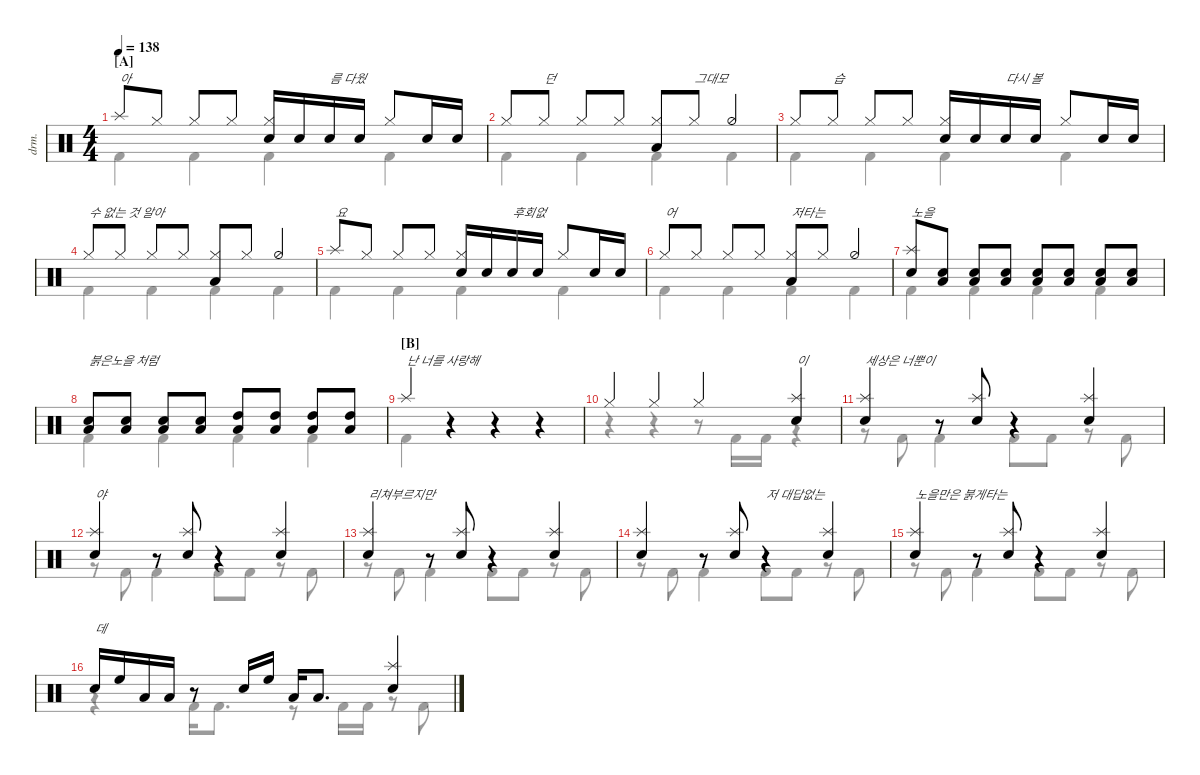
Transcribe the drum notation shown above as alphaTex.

\defaultSystemsLayout 4
\hideDynamics
\bracketExtendMode nobrackets
\track ("Drumkit" "drm.") {instrument percussion}
\staff {score}
\articulation defaults
\voice
\ts (4 4)
\section ("A" "")
\tempo 138
\clef neutral
\ks c "Splash (hit)".8{txt "아" dy mf} "Hi-Hat (closed)".8 "Hi-Hat (closed)".8 "Hi-Hat (closed)".8
("Hi-Hat (closed)" "Snare (hit) 2").16 "Snare (hit) 2".16 "Snare (hit) 2".16{txt "름 다웠"} "Snare (hit) 2".16 "Hi-Hat (closed)".8 "Snare (hit) 2".16 "Snare (hit) 2".16 |
"Hi-Hat (closed)".8 "Hi-Hat (closed)".8{txt "던"} "Hi-Hat (closed)".8 "Hi-Hat (closed)".8 ("Hi-Hat (closed)" "Low Tom (hit)").8 "Hi-Hat (closed)".8{txt "그대모"} "Hi-Hat (half)".4 |
"Hi-Hat (closed)".8 "Hi-Hat (closed)".8{txt "습"} "Hi-Hat (closed)".8 "Hi-Hat (closed)".8 ("Hi-Hat (closed)" "Snare (hit) 2").16 "Snare (hit) 2".16 "Snare (hit) 2".16{txt "다시 볼"} "Snare (hit) 2".16 "Hi-Hat (closed)".8 "Snare (hit) 2".16 "Snare (hit) 2".16 |
"Hi-Hat (closed)".8{txt "수 없는 것 알아"} "Hi-Hat (closed)".8 "Hi-Hat (closed)".8 "Hi-Hat (closed)".8 ("Hi-Hat (closed)" "Low Tom (hit)").8 "Hi-Hat (closed)".8 "Hi-Hat (half)".4 |
"Splash (hit)".8{txt "요"} "Hi-Hat (closed)".8 "Hi-Hat (closed)".8 "Hi-Hat (closed)".8 ("Hi-Hat (closed)" "Snare (hit) 2").16 "Snare (hit) 2".16 "Snare (hit) 2".16{txt "후회없"} "Snare (hit) 2".16 "Hi-Hat (closed)".8 "Snare (hit) 2".16 "Snare (hit) 2".16 |
"Hi-Hat (closed)".8{txt "어"} "Hi-Hat (closed)".8 "Hi-Hat (closed)".8 "Hi-Hat (closed)".8 ("Hi-Hat (closed)" "Low Tom (hit)").8{txt "저타는"} "Hi-Hat (closed)".8 "Hi-Hat (half)".4 |
("Splash (hit)" "Snare (hit) 2").8{txt "노을"} ("Snare (hit) 2" "Low Tom (hit)").8 ("Snare (hit) 2" "Low Tom (hit)").8 ("Snare (hit) 2" "Low Tom (hit)").8 ("Snare (hit) 2" "Low Tom (hit)").8 ("Snare (hit) 2" "Low Tom (hit)").8 ("Snare (hit) 2" "Low Tom (hit)").8 ("Snare (hit) 2" "Low Tom (hit)").8 |
("Snare (hit) 2" "Low Tom (hit)").8{txt "붉은노을 처럼"} ("Snare (hit) 2" "Low Tom (hit)").8 ("Snare (hit) 2" "Low Tom (hit)").8 ("Snare (hit) 2" "Low Tom (hit)").8 ("High Tom (hit)" "Low Tom (hit)").8 ("High Tom (hit)" "Low Tom (hit)").8 ("High Tom (hit)" "Low Tom (hit)").8 ("High Tom (hit)" "Low Tom (hit)").8 |
\section ("B" "")
"Splash (hit)".4{txt "난 너를 사랑해"} r.4 r.4 r.4 |
"Hi-Hat (closed)".4 "Hi-Hat (closed)".4 "Hi-Hat (closed)".4 ("Splash (hit)" "Snare (hit) 2").4{txt "이"} |
("Splash (hit)" "Snare (hit) 2").4{txt "세상은 너뿐이"} r.8 ("Splash (hit)" "Snare (hit) 2").8 r.4 ("Splash (hit)" "Snare (hit) 2").4 |
("Splash (hit)" "Snare (hit) 2").4{txt "야"} r.8 ("Splash (hit)" "Snare (hit) 2").8 r.4 ("Splash (hit)" "Snare (hit) 2").4 |
("Splash (hit)" "Snare (hit) 2").4{txt "리쳐부르지만"} r.8 ("Splash (hit)" "Snare (hit) 2").8 r.4 ("Splash (hit)" "Snare (hit) 2").4 |
("Splash (hit)" "Snare (hit) 2").4 r.8 ("Splash (hit)" "Snare (hit) 2").8 r.4{txt "저 대답없는"} ("Splash (hit)" "Snare (hit) 2").4 |
("Splash (hit)" "Snare (hit) 2").4{txt "노을만은 붉게타는"} r.8 ("Splash (hit)" "Snare (hit) 2").8 r.4 ("Splash (hit)" "Snare (hit) 2").4 |
"Snare (hit) 2".16{txt "데"} "High Floor Tom (hit)".16 "Low Tom (hit)".16 "Low Tom (hit)".16 r.8 "Snare (hit) 2".16 "High Floor Tom (hit)".16 "Low Tom (hit)".16 "Low Tom (hit)".8{d} ("Snare (hit) 2" "Splash (hit)").4
\voice
\clef neutral
\ottava regular
\simile none
\ks c
|
|
|
|
|
|
|
|
|
|
|
|
|
|
|
\voice
\clef neutral
\ottava regular
\simile none
\ks c "Kick (hit) 2".4{dy mf} "Kick (hit) 2".4 "Kick (hit) 2".4 "Kick (hit) 2".4
|
"Kick (hit) 2".4 "Kick (hit) 2".4 "Kick (hit) 2".4 "Kick (hit) 2".4 |
"Kick (hit) 2".4 "Kick (hit) 2".4 "Kick (hit) 2".4 "Kick (hit) 2".4 |
"Kick (hit) 2".4 "Kick (hit) 2".4 "Kick (hit) 2".4 "Kick (hit) 2".4 |
"Kick (hit) 2".4 "Kick (hit) 2".4 "Kick (hit) 2".4 "Kick (hit) 2".4 |
"Kick (hit) 2".4 "Kick (hit) 2".4 "Kick (hit) 2".4 "Kick (hit) 2".4 |
"Kick (hit) 2".4 "Kick (hit) 2".4 "Kick (hit) 2".4 "Kick (hit) 2".4 |
"Kick (hit) 2".4 "Kick (hit) 2".4 "Kick (hit) 2".4 "Kick (hit) 2".4 |
"Kick (hit) 2".4 r.4 r.4 r.4 |
r.4 r.4 r.8 "Kick (hit) 2".16 "Kick (hit) 2".16 r.4 |
r.8 "Kick (hit) 2".8 "Kick (hit) 2".4 "Kick (hit) 2".8 "Kick (hit) 2".8 r.8 "Kick (hit) 2".8 |
r.8 "Kick (hit) 2".8 "Kick (hit) 2".4 "Kick (hit) 2".8 "Kick (hit) 2".8 r.8 "Kick (hit) 2".8 |
r.8 "Kick (hit) 2".8 "Kick (hit) 2".4 "Kick (hit) 2".8 "Kick (hit) 2".8 r.8 "Kick (hit) 2".8 |
r.8 "Kick (hit) 2".8 "Kick (hit) 2".4 "Kick (hit) 2".8 "Kick (hit) 2".8 r.8 "Kick (hit) 2".8 |
r.8 "Kick (hit) 2".8 "Kick (hit) 2".4 "Kick (hit) 2".8 "Kick (hit) 2".8 r.8 "Kick (hit) 2".8 |
r.4 "Kick (hit) 2".16 "Kick (hit) 2".8{d} r.8 "Kick (hit) 2".16 "Kick (hit) 2".16 r.8 "Kick (hit) 2".8
